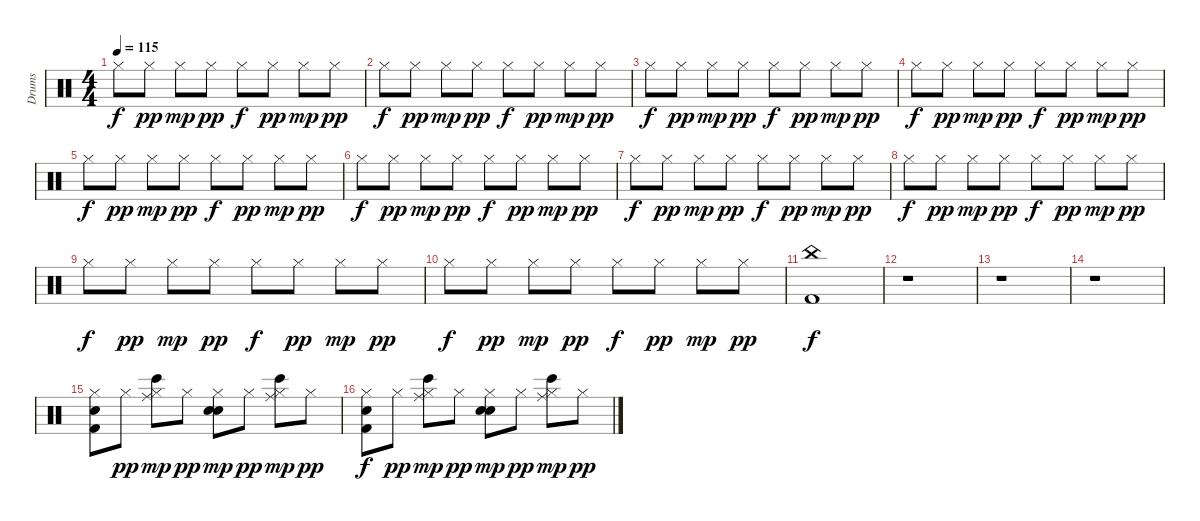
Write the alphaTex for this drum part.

\track ("Drums" "Drums") {instrument percussion}
\staff {score}
\articulation defaults
\ts (4 4)
\tempo 115
\clef neutral
\ks c "Hi-Hat (closed)".8{dy f} "Hi-Hat (closed)".8{dy pp} "Hi-Hat (closed)".8{dy mp} "Hi-Hat (closed)".8{dy pp} "Hi-Hat (closed)".8{dy f} "Hi-Hat (closed)".8{dy pp} "Hi-Hat (closed)".8{dy mp} "Hi-Hat (closed)".8{dy pp}
|
"Hi-Hat (closed)".8{dy f} "Hi-Hat (closed)".8{dy pp} "Hi-Hat (closed)".8{dy mp} "Hi-Hat (closed)".8{dy pp} "Hi-Hat (closed)".8{dy f} "Hi-Hat (closed)".8{dy pp} "Hi-Hat (closed)".8{dy mp} "Hi-Hat (closed)".8{dy pp} |
"Hi-Hat (closed)".8{dy f} "Hi-Hat (closed)".8{dy pp} "Hi-Hat (closed)".8{dy mp} "Hi-Hat (closed)".8{dy pp} "Hi-Hat (closed)".8{dy f} "Hi-Hat (closed)".8{dy pp} "Hi-Hat (closed)".8{dy mp} "Hi-Hat (closed)".8{dy pp} |
"Hi-Hat (closed)".8{dy f} "Hi-Hat (closed)".8{dy pp} "Hi-Hat (closed)".8{dy mp} "Hi-Hat (closed)".8{dy pp} "Hi-Hat (closed)".8{dy f} "Hi-Hat (closed)".8{dy pp} "Hi-Hat (closed)".8{dy mp} "Hi-Hat (closed)".8{dy pp} |
"Hi-Hat (closed)".8{dy f} "Hi-Hat (closed)".8{dy pp} "Hi-Hat (closed)".8{dy mp} "Hi-Hat (closed)".8{dy pp} "Hi-Hat (closed)".8{dy f} "Hi-Hat (closed)".8{dy pp} "Hi-Hat (closed)".8{dy mp} "Hi-Hat (closed)".8{dy pp} |
"Hi-Hat (closed)".8{dy f} "Hi-Hat (closed)".8{dy pp} "Hi-Hat (closed)".8{dy mp} "Hi-Hat (closed)".8{dy pp} "Hi-Hat (closed)".8{dy f} "Hi-Hat (closed)".8{dy pp} "Hi-Hat (closed)".8{dy mp} "Hi-Hat (closed)".8{dy pp} |
"Hi-Hat (closed)".8{dy f} "Hi-Hat (closed)".8{dy pp} "Hi-Hat (closed)".8{dy mp} "Hi-Hat (closed)".8{dy pp} "Hi-Hat (closed)".8{dy f} "Hi-Hat (closed)".8{dy pp} "Hi-Hat (closed)".8{dy mp} "Hi-Hat (closed)".8{dy pp} |
"Hi-Hat (closed)".8{dy f} "Hi-Hat (closed)".8{dy pp} "Hi-Hat (closed)".8{dy mp} "Hi-Hat (closed)".8{dy pp} "Hi-Hat (closed)".8{dy f} "Hi-Hat (closed)".8{dy pp} "Hi-Hat (closed)".8{dy mp} "Hi-Hat (closed)".8{dy pp} |
"Hi-Hat (closed)".8{dy f} "Hi-Hat (closed)".8{dy pp} "Hi-Hat (closed)".8{dy mp} "Hi-Hat (closed)".8{dy pp} "Hi-Hat (closed)".8{dy f} "Hi-Hat (closed)".8{dy pp} "Hi-Hat (closed)".8{dy mp} "Hi-Hat (closed)".8{dy pp} |
"Hi-Hat (closed)".8{dy f} "Hi-Hat (closed)".8{dy pp} "Hi-Hat (closed)".8{dy mp} "Hi-Hat (closed)".8{dy pp} "Hi-Hat (closed)".8{dy f} "Hi-Hat (closed)".8{dy pp} "Hi-Hat (closed)".8{dy mp} "Hi-Hat (closed)".8{dy pp} |
("China (hit)" "Kick (hit) 2").1{dy f} |
r.1 |
r.1 |
r.1 |
("Hi-Hat (closed)" "Hand Clap (hit)" "Kick (hit) 2").8 "Hi-Hat (closed)".8{dy pp} ("Hi-Hat (closed)" "Ride (middle)" "Bongo High (hit)").8{dy mp} "Hi-Hat (closed)".8{dy pp} ("Hi-Hat (closed)" "Hand Clap (hit)" "Electric Snare (hit)").8{dy mp} "Hi-Hat (closed)".8{dy pp} ("Hi-Hat (closed)" "Ride (middle)" "Bongo High (hit)").8{dy mp} "Hi-Hat (closed)".8{dy pp} |
("Hi-Hat (closed)" "Hand Clap (hit)" "Kick (hit) 2").8{dy f} "Hi-Hat (closed)".8{dy pp} ("Hi-Hat (closed)" "Ride (middle)" "Bongo High (hit)").8{dy mp} "Hi-Hat (closed)".8{dy pp} ("Hi-Hat (closed)" "Hand Clap (hit)" "Electric Snare (hit)").8{dy mp} "Hi-Hat (closed)".8{dy pp} ("Hi-Hat (closed)" "Ride (middle)" "Bongo High (hit)").8{dy mp} "Hi-Hat (closed)".8{dy pp}
